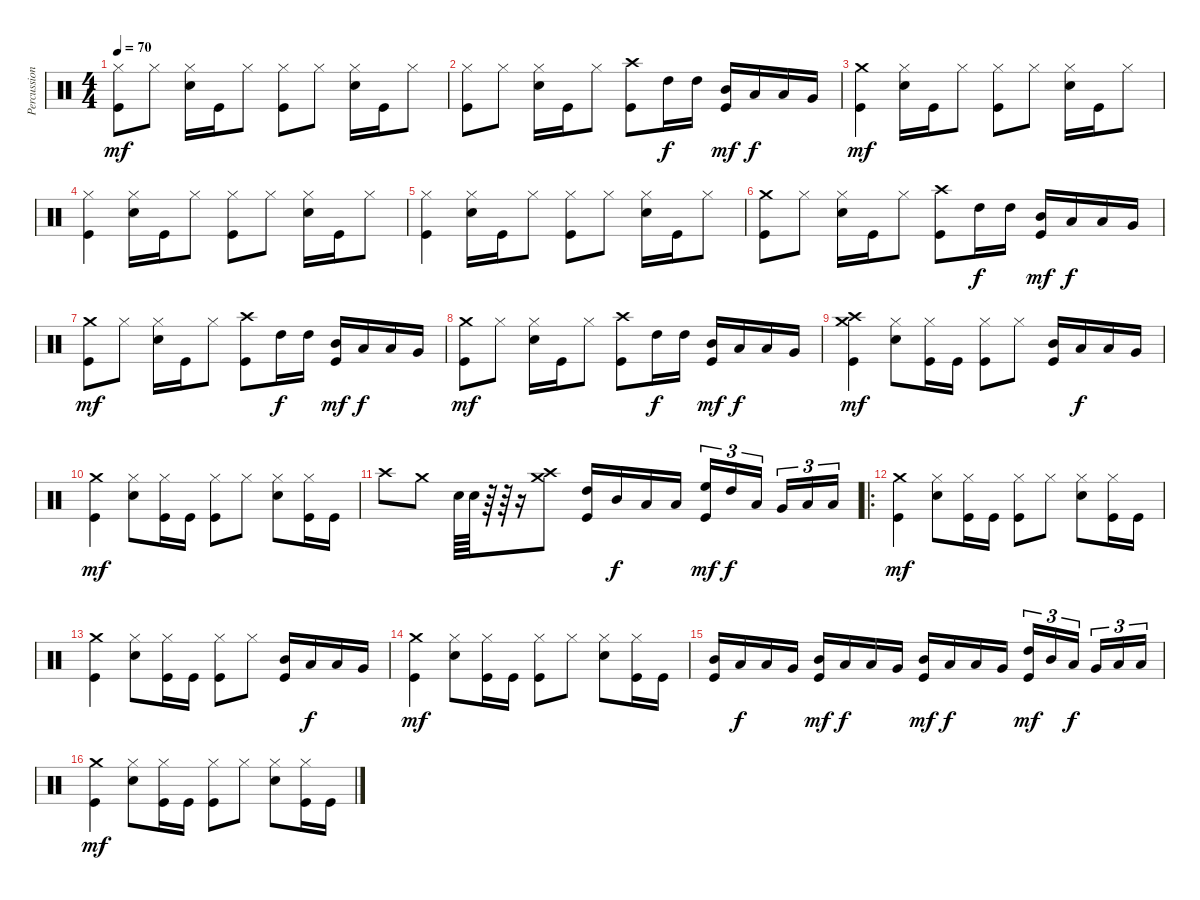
\track ("Percussion" "Percussion") {instrument percussion}
\staff {score}
\articulation defaults
\ts (4 4)
\tempo 70
\clef neutral
\ks c
("Hi-Hat (closed)" "Kick (hit)").8{dy mf} "Hi-Hat (closed)".8 ("Hi-Hat (closed)" "Snare (hit) 2").16 "Kick (hit)".16 "Hi-Hat (closed)".8 ("Hi-Hat (closed)" "Kick (hit)").8 "Hi-Hat (closed)".8 ("Hi-Hat (closed)" "Snare (hit) 2").16 "Kick (hit)".16 "Hi-Hat (closed)".8 |
("Hi-Hat (closed)" "Kick (hit)").8 "Hi-Hat (closed)".8 ("Hi-Hat (closed)" "Snare (hit) 2").16 "Kick (hit)".16 "Hi-Hat (closed)".8 ("Crash high (hit)" "Kick (hit)").8 "High Tom (hit)".16{dy f} "High Tom (hit)".16 ("Mid Tom (hit)" "Kick (hit)").16{dy mf} "Low Tom (hit)".16{dy f} "Low Tom (hit)".16 "Very Low Tom (hit)".16 |
("Crash medium (hit)" "Kick (hit)").4{dy mf} ("Hi-Hat (closed)" "Snare (hit) 2").16 "Kick (hit)".16 "Hi-Hat (closed)".8 ("Hi-Hat (closed)" "Kick (hit)").8 "Hi-Hat (closed)".8 ("Hi-Hat (closed)" "Snare (hit) 2").16 "Kick (hit)".16 "Hi-Hat (closed)".8 |
("Hi-Hat (closed)" "Kick (hit)").4 ("Hi-Hat (closed)" "Snare (hit) 2").16 "Kick (hit)".16 "Hi-Hat (closed)".8 ("Hi-Hat (closed)" "Kick (hit)").8 "Hi-Hat (closed)".8 ("Hi-Hat (closed)" "Snare (hit) 2").16 "Kick (hit)".16 "Hi-Hat (closed)".8 |
("Hi-Hat (closed)" "Kick (hit)").4 ("Hi-Hat (closed)" "Snare (hit) 2").16 "Kick (hit)".16 "Hi-Hat (closed)".8 ("Hi-Hat (closed)" "Kick (hit)").8 "Hi-Hat (closed)".8 ("Hi-Hat (closed)" "Snare (hit) 2").16 "Kick (hit)".16 "Hi-Hat (closed)".8 |
("Crash medium (hit)" "Kick (hit)").8 "Hi-Hat (closed)".8 ("Hi-Hat (closed)" "Snare (hit) 2").16 "Kick (hit)".16 "Hi-Hat (closed)".8 ("Crash high (hit)" "Kick (hit)").8 "High Tom (hit)".16{dy f} "High Tom (hit)".16 ("Mid Tom (hit)" "Kick (hit)").16{dy mf} "Low Tom (hit)".16{dy f} "Low Tom (hit)".16 "Very Low Tom (hit)".16 |
("Crash medium (hit)" "Kick (hit)").8{dy mf} "Hi-Hat (closed)".8 ("Hi-Hat (closed)" "Snare (hit) 2").16 "Kick (hit)".16 "Hi-Hat (closed)".8 ("Crash high (hit)" "Kick (hit)").8 "High Tom (hit)".16{dy f} "High Tom (hit)".16 ("Mid Tom (hit)" "Kick (hit)").16{dy mf} "Low Tom (hit)".16{dy f} "Low Tom (hit)".16 "Very Low Tom (hit)".16 |
("Crash medium (hit)" "Kick (hit)").8{dy mf} "Hi-Hat (closed)".8 ("Hi-Hat (closed)" "Snare (hit) 2").16 "Kick (hit)".16 "Hi-Hat (closed)".8 ("Crash high (hit)" "Kick (hit)").8 "High Tom (hit)".16{dy f} "High Tom (hit)".16 ("Mid Tom (hit)" "Kick (hit)").16{dy mf} "Low Tom (hit)".16{dy f} "Low Tom (hit)".16 "Very Low Tom (hit)".16 |
("Crash medium (hit)" "Crash high (hit)" "Kick (hit)").4{dy mf} ("Hi-Hat (closed)" "Snare (hit) 2").8 ("Hi-Hat (closed)" "Kick (hit)").16 "Kick (hit)".16 ("Hi-Hat (closed)" "Kick (hit)").8 "Hi-Hat (closed)".8 ("Mid Tom (hit)" "Kick (hit)").16 "Low Tom (hit)".16{dy f} "Low Tom (hit)".16 "Very Low Tom (hit)".16 |
("Crash medium (hit)" "Kick (hit)").4{dy mf} ("Hi-Hat (closed)" "Snare (hit) 2").8 ("Hi-Hat (closed)" "Kick (hit)").16 "Kick (hit)".16 ("Hi-Hat (closed)" "Kick (hit)").8 "Hi-Hat (closed)".8 ("Hi-Hat (closed)" "Snare (hit) 2").8 ("Hi-Hat (closed)" "Kick (hit)").16 "Kick (hit)".16 |
"Crash high (hit)".8 "Crash medium (hit)".8 "Snare (hit) 2".64 "Snare (hit) 2".64 r.64 r.64 r.16 ("Crash high (hit)" "Crash medium (hit)").8 ("High Tom (hit)" "Kick (hit)").16 "Mid Tom (hit)".16{dy f} "Low Tom (hit)".16 "Low Floor Tom (hit)".16 ("High Floor Tom (hit)" "Kick (hit)").16{tu (3 2) dy mf} "High Tom (hit)".16{tu (3 2) dy f} "Low Tom (hit)".16{tu (3 2)} "Very Low Tom (hit)".16{tu (3 2)} "Low Floor Tom (hit)".16{tu (3 2)} "Low Floor Tom (hit)".16{tu (3 2)} |
\ro
("Crash medium (hit)" "Kick (hit)").4{dy mf} ("Hi-Hat (closed)" "Snare (hit) 2").8 ("Hi-Hat (closed)" "Kick (hit)").16 "Kick (hit)".16 ("Hi-Hat (closed)" "Kick (hit)").8 "Hi-Hat (closed)".8 ("Hi-Hat (closed)" "Snare (hit) 2").8 ("Hi-Hat (closed)" "Kick (hit)").16 "Kick (hit)".16 |
("Crash medium (hit)" "Kick (hit)").4 ("Hi-Hat (closed)" "Snare (hit) 2").8 ("Hi-Hat (closed)" "Kick (hit)").16 "Kick (hit)".16 ("Hi-Hat (closed)" "Kick (hit)").8 "Hi-Hat (closed)".8 ("Mid Tom (hit)" "Kick (hit)").16 "Low Tom (hit)".16{dy f} "Low Tom (hit)".16 "Very Low Tom (hit)".16 |
("Crash medium (hit)" "Kick (hit)").4{dy mf} ("Hi-Hat (closed)" "Snare (hit) 2").8 ("Hi-Hat (closed)" "Kick (hit)").16 "Kick (hit)".16 ("Hi-Hat (closed)" "Kick (hit)").8 "Hi-Hat (closed)".8 ("Hi-Hat (closed)" "Snare (hit) 2").8 ("Hi-Hat (closed)" "Kick (hit)").16 "Kick (hit)".16 |
("Mid Tom (hit)" "Kick (hit)").16 "Low Tom (hit)".16{dy f} "Low Tom (hit)".16 "Very Low Tom (hit)".16 ("Mid Tom (hit)" "Kick (hit)").16{dy mf} "Low Tom (hit)".16{dy f} "Low Tom (hit)".16 "Very Low Tom (hit)".16 ("Mid Tom (hit)" "Kick (hit)").16{dy mf} "Low Tom (hit)".16{dy f} "Low Tom (hit)".16 "Very Low Tom (hit)".16 ("High Tom (hit)" "Kick (hit)").16{tu (3 2) dy mf} "Mid Tom (hit)".16{tu (3 2)} "Low Tom (hit)".16{tu (3 2) dy f} "Very Low Tom (hit)".16{tu (3 2)} "Low Floor Tom (hit)".16{tu (3 2)} "Low Floor Tom (hit)".16{tu (3 2)} |
("Crash medium (hit)" "Kick (hit)").4{dy mf} ("Hi-Hat (closed)" "Snare (hit) 2").8 ("Hi-Hat (closed)" "Kick (hit)").16 "Kick (hit)".16 ("Hi-Hat (closed)" "Kick (hit)").8 "Hi-Hat (closed)".8 ("Hi-Hat (closed)" "Snare (hit) 2").8 ("Hi-Hat (closed)" "Kick (hit)").16 "Kick (hit)".16
